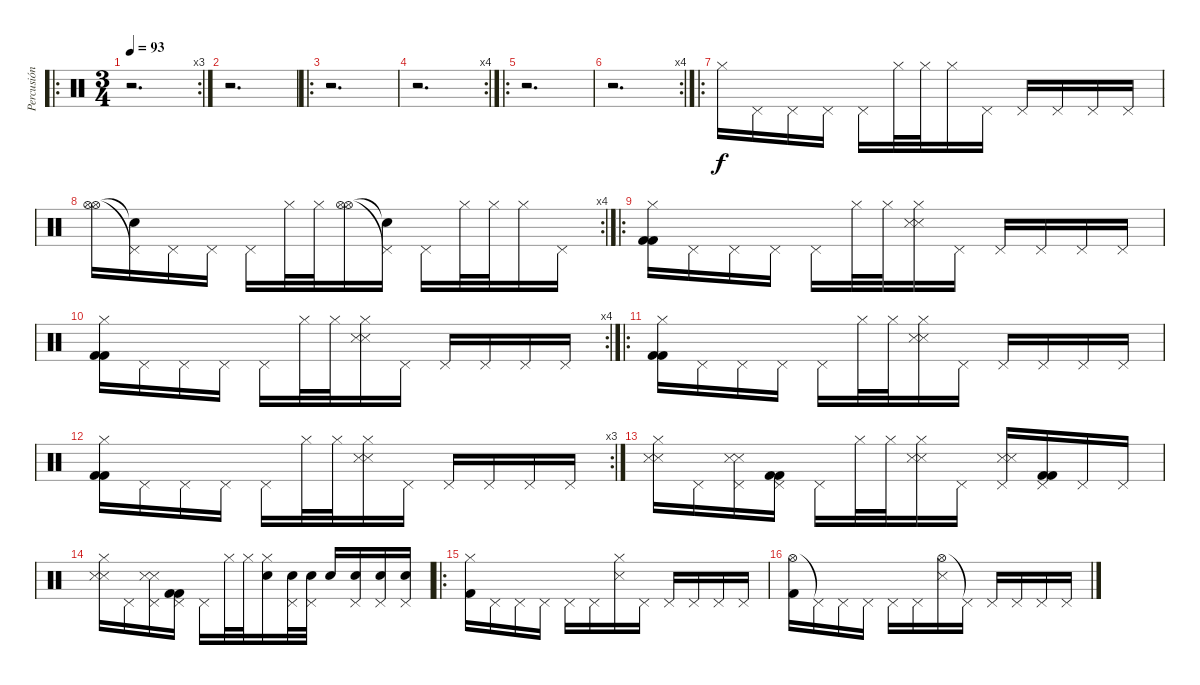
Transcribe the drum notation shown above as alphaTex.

\track ("Percusión" "Percusión") {instrument percussion}
\staff {score}
\articulation defaults
\ro
\rc 3
\ts (3 4)
\tempo 93
\clef neutral
\ks c
r.2{d dy f} |
r.2{d} |
\ro
r.2{d} |
\rc 4
r.2{d} |
\ro
r.2{d} |
\rc 4
r.2{d} |
\ro "Hi-Hat (closed)".16 "Pedal Hi-Hat (hit)".16 "Pedal Hi-Hat (hit)".16 "Pedal Hi-Hat (hit)".16 "Pedal Hi-Hat (hit)".16 "Hi-Hat (closed)".32 "Hi-Hat (closed)".32 "Hi-Hat (closed)".16 "Pedal Hi-Hat (hit)".16 "Pedal Hi-Hat (hit)".16 "Pedal Hi-Hat (hit)".16 "Pedal Hi-Hat (hit)".16 "Pedal Hi-Hat (hit)".16
|
\rc 4
("Hi-Hat (open)" "Hi-Hat (open)").16 ("Pedal Hi-Hat (hit)"{t} "Snare (hit)"{t}).16 "Pedal Hi-Hat (hit)".16 "Pedal Hi-Hat (hit)".16 "Pedal Hi-Hat (hit)".16 "Hi-Hat (closed)".32 "Hi-Hat (closed)".32 ("Hi-Hat (open)" "Hi-Hat (open)").16 ("Pedal Hi-Hat (hit)"{t} "Snare (hit)"{t}).16 "Pedal Hi-Hat (hit)".16 "Hi-Hat (closed)".32 "Hi-Hat (closed)".32 "Hi-Hat (closed)".16 "Pedal Hi-Hat (hit)".16 |
\ro
("Hi-Hat (closed)" "Kick (hit) 2" "Kick (hit) 2").16 "Pedal Hi-Hat (hit)".16 "Pedal Hi-Hat (hit)".16 "Pedal Hi-Hat (hit)".16 "Pedal Hi-Hat (hit)".16 "Hi-Hat (closed)".32 "Hi-Hat (closed)".32 ("Hi-Hat (closed)" "Snare (side stick) 3" "Snare (side stick) 3").16 "Pedal Hi-Hat (hit)".16 "Pedal Hi-Hat (hit)".16 "Pedal Hi-Hat (hit)".16 "Pedal Hi-Hat (hit)".16 "Pedal Hi-Hat (hit)".16 |
\rc 4
("Hi-Hat (closed)" "Kick (hit) 2" "Kick (hit) 2").16 "Pedal Hi-Hat (hit)".16 "Pedal Hi-Hat (hit)".16 "Pedal Hi-Hat (hit)".16 "Pedal Hi-Hat (hit)".16 "Hi-Hat (closed)".32 "Hi-Hat (closed)".32 ("Hi-Hat (closed)" "Snare (side stick) 3" "Snare (side stick) 3").16 "Pedal Hi-Hat (hit)".16 "Pedal Hi-Hat (hit)".16 "Pedal Hi-Hat (hit)".16 "Pedal Hi-Hat (hit)".16 "Pedal Hi-Hat (hit)".16 |
\ro
("Hi-Hat (closed)" "Kick (hit) 2" "Kick (hit) 2").16 "Pedal Hi-Hat (hit)".16 "Pedal Hi-Hat (hit)".16 "Pedal Hi-Hat (hit)".16 "Pedal Hi-Hat (hit)".16 "Hi-Hat (closed)".32 "Hi-Hat (closed)".32 ("Hi-Hat (closed)" "Snare (side stick) 3" "Snare (side stick) 3").16 "Pedal Hi-Hat (hit)".16 "Pedal Hi-Hat (hit)".16 "Pedal Hi-Hat (hit)".16 "Pedal Hi-Hat (hit)".16 "Pedal Hi-Hat (hit)".16 |
\rc 3
("Hi-Hat (closed)" "Kick (hit) 2" "Kick (hit) 2").16 "Pedal Hi-Hat (hit)".16 "Pedal Hi-Hat (hit)".16 "Pedal Hi-Hat (hit)".16 "Pedal Hi-Hat (hit)".16 "Hi-Hat (closed)".32 "Hi-Hat (closed)".32 ("Hi-Hat (closed)" "Snare (side stick) 3" "Snare (side stick) 3").16 "Pedal Hi-Hat (hit)".16 "Pedal Hi-Hat (hit)".16 "Pedal Hi-Hat (hit)".16 "Pedal Hi-Hat (hit)".16 "Pedal Hi-Hat (hit)".16 |
("Hi-Hat (closed)" "Snare (side stick) 3" "Snare (side stick) 3").16 "Pedal Hi-Hat (hit)".16 ("Pedal Hi-Hat (hit)" "Snare (side stick) 3" "Snare (side stick) 3").16 ("Pedal Hi-Hat (hit)" "Kick (hit) 2" "Kick (hit) 2").16 "Pedal Hi-Hat (hit)".16 "Hi-Hat (closed)".32 "Hi-Hat (closed)".32 ("Hi-Hat (closed)" "Snare (side stick) 3" "Snare (side stick) 3").16 "Pedal Hi-Hat (hit)".16 ("Pedal Hi-Hat (hit)" "Snare (side stick) 3" "Snare (side stick) 3").16 ("Pedal Hi-Hat (hit)" "Kick (hit) 2" "Kick (hit) 2").16 "Pedal Hi-Hat (hit)".16 "Pedal Hi-Hat (hit)".16 |
("Hi-Hat (closed)" "Snare (side stick) 3" "Snare (side stick) 3").16 "Pedal Hi-Hat (hit)".16 ("Pedal Hi-Hat (hit)" "Snare (side stick) 3" "Snare (side stick) 3").16 ("Pedal Hi-Hat (hit)" "Kick (hit) 2" "Kick (hit) 2").16 "Pedal Hi-Hat (hit)".16 "Hi-Hat (closed)".32 "Hi-Hat (closed)".32 ("Hi-Hat (closed)" "Electric Snare (hit)").16 ("Pedal Hi-Hat (hit)" "Electric Snare (hit)").32 ("Pedal Hi-Hat (hit)" "Electric Snare (hit)").32 "Electric Snare (hit)".16 ("Pedal Hi-Hat (hit)" "Electric Snare (hit)").16 ("Pedal Hi-Hat (hit)" "Electric Snare (hit)").16 ("Pedal Hi-Hat (hit)" "Electric Snare (hit)").16 |
\ro
("Hi-Hat (closed)" "Kick (hit) 2").16 "Pedal Hi-Hat (hit)".16 "Pedal Hi-Hat (hit)".16 "Pedal Hi-Hat (hit)".16 "Pedal Hi-Hat (hit)".16 "Pedal Hi-Hat (hit)".16 ("Hi-Hat (closed)" "Snare (side stick) 3").16 "Pedal Hi-Hat (hit)".16 "Pedal Hi-Hat (hit)".16 "Pedal Hi-Hat (hit)".16 "Pedal Hi-Hat (hit)".16 "Pedal Hi-Hat (hit)".16 |
("Hi-Hat (open)" "Kick (hit) 2").16 "Pedal Hi-Hat (hit)"{t}.16 "Pedal Hi-Hat (hit)".16 "Pedal Hi-Hat (hit)".16 "Pedal Hi-Hat (hit)".16 "Pedal Hi-Hat (hit)".16 ("Hi-Hat (open)" "Snare (side stick) 3").16 "Pedal Hi-Hat (hit)"{t}.16 "Pedal Hi-Hat (hit)".16 "Pedal Hi-Hat (hit)".16 "Pedal Hi-Hat (hit)".16 "Pedal Hi-Hat (hit)".16
